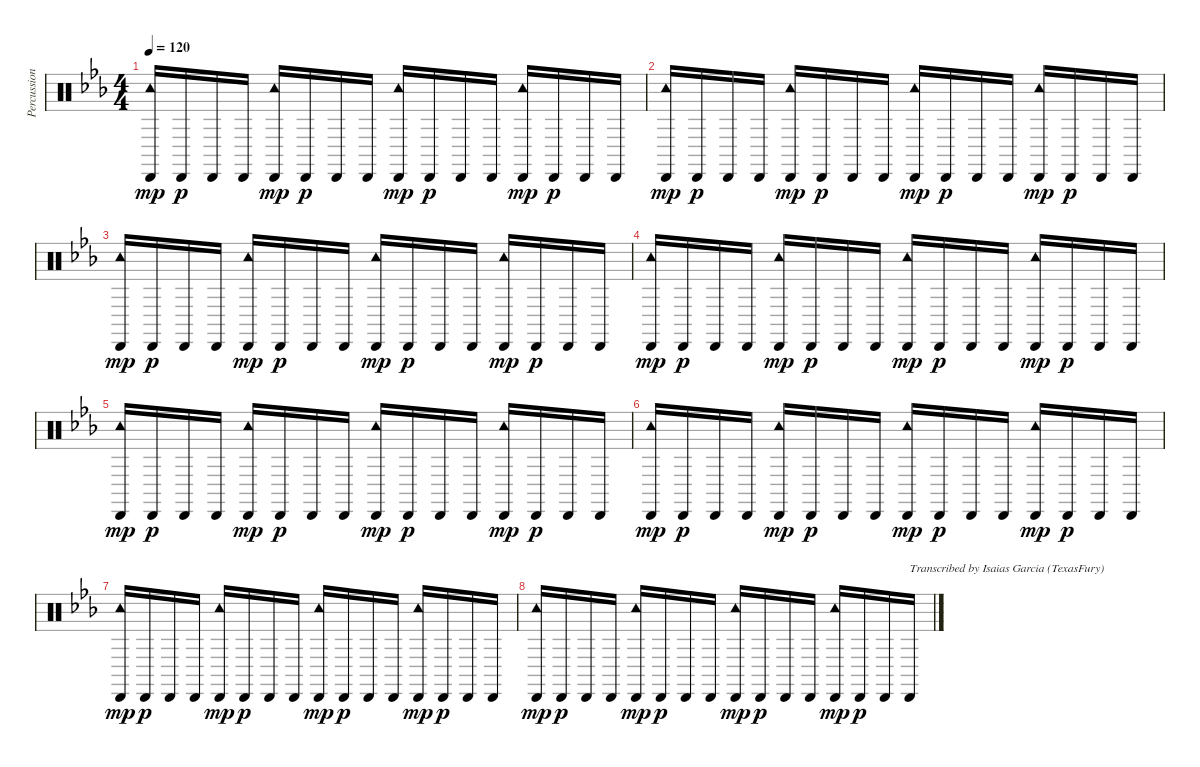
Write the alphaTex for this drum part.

\track ("Percussion" "Percussion") {instrument percussion}
\staff {score}
\articulation defaults
\ts (4 4)
\tempo 120
\clef neutral
\ks cminor
("Cabasa (hit)" "Tambourine (hit)").16{dy mp} "Cabasa (hit)".16{dy p} "Cabasa (hit)".16 "Cabasa (hit)".16 ("Cabasa (hit)" "Tambourine (hit)").16{dy mp} "Cabasa (hit)".16{dy p} "Cabasa (hit)".16 "Cabasa (hit)".16 ("Cabasa (hit)" "Tambourine (hit)").16{dy mp} "Cabasa (hit)".16{dy p} "Cabasa (hit)".16 "Cabasa (hit)".16 ("Cabasa (hit)" "Tambourine (hit)").16{dy mp} "Cabasa (hit)".16{dy p} "Cabasa (hit)".16 "Cabasa (hit)".16 |
("Cabasa (hit)" "Tambourine (hit)").16{dy mp} "Cabasa (hit)".16{dy p} "Cabasa (hit)".16 "Cabasa (hit)".16 ("Cabasa (hit)" "Tambourine (hit)").16{dy mp} "Cabasa (hit)".16{dy p} "Cabasa (hit)".16 "Cabasa (hit)".16 ("Cabasa (hit)" "Tambourine (hit)").16{dy mp} "Cabasa (hit)".16{dy p} "Cabasa (hit)".16 "Cabasa (hit)".16 ("Cabasa (hit)" "Tambourine (hit)").16{dy mp} "Cabasa (hit)".16{dy p} "Cabasa (hit)".16 "Cabasa (hit)".16 |
("Cabasa (hit)" "Tambourine (hit)").16{dy mp} "Cabasa (hit)".16{dy p} "Cabasa (hit)".16 "Cabasa (hit)".16 ("Cabasa (hit)" "Tambourine (hit)").16{dy mp} "Cabasa (hit)".16{dy p} "Cabasa (hit)".16 "Cabasa (hit)".16 ("Cabasa (hit)" "Tambourine (hit)").16{dy mp} "Cabasa (hit)".16{dy p} "Cabasa (hit)".16 "Cabasa (hit)".16 ("Cabasa (hit)" "Tambourine (hit)").16{dy mp} "Cabasa (hit)".16{dy p} "Cabasa (hit)".16 "Cabasa (hit)".16 |
("Cabasa (hit)" "Tambourine (hit)").16{dy mp} "Cabasa (hit)".16{dy p} "Cabasa (hit)".16 "Cabasa (hit)".16 ("Cabasa (hit)" "Tambourine (hit)").16{dy mp} "Cabasa (hit)".16{dy p} "Cabasa (hit)".16 "Cabasa (hit)".16 ("Cabasa (hit)" "Tambourine (hit)").16{dy mp} "Cabasa (hit)".16{dy p} "Cabasa (hit)".16 "Cabasa (hit)".16 ("Cabasa (hit)" "Tambourine (hit)").16{dy mp} "Cabasa (hit)".16{dy p} "Cabasa (hit)".16 "Cabasa (hit)".16 |
("Cabasa (hit)" "Tambourine (hit)").16{dy mp} "Cabasa (hit)".16{dy p} "Cabasa (hit)".16 "Cabasa (hit)".16 ("Cabasa (hit)" "Tambourine (hit)").16{dy mp} "Cabasa (hit)".16{dy p} "Cabasa (hit)".16 "Cabasa (hit)".16 ("Cabasa (hit)" "Tambourine (hit)").16{dy mp} "Cabasa (hit)".16{dy p} "Cabasa (hit)".16 "Cabasa (hit)".16 ("Cabasa (hit)" "Tambourine (hit)").16{dy mp} "Cabasa (hit)".16{dy p} "Cabasa (hit)".16 "Cabasa (hit)".16 |
("Cabasa (hit)" "Tambourine (hit)").16{dy mp} "Cabasa (hit)".16{dy p} "Cabasa (hit)".16 "Cabasa (hit)".16 ("Cabasa (hit)" "Tambourine (hit)").16{dy mp} "Cabasa (hit)".16{dy p} "Cabasa (hit)".16 "Cabasa (hit)".16 ("Cabasa (hit)" "Tambourine (hit)").16{dy mp} "Cabasa (hit)".16{dy p} "Cabasa (hit)".16 "Cabasa (hit)".16 ("Cabasa (hit)" "Tambourine (hit)").16{dy mp} "Cabasa (hit)".16{dy p} "Cabasa (hit)".16 "Cabasa (hit)".16 |
("Cabasa (hit)" "Tambourine (hit)").16{dy mp} "Cabasa (hit)".16{dy p} "Cabasa (hit)".16 "Cabasa (hit)".16 ("Cabasa (hit)" "Tambourine (hit)").16{dy mp} "Cabasa (hit)".16{dy p} "Cabasa (hit)".16 "Cabasa (hit)".16 ("Cabasa (hit)" "Tambourine (hit)").16{dy mp} "Cabasa (hit)".16{dy p} "Cabasa (hit)".16 "Cabasa (hit)".16 ("Cabasa (hit)" "Tambourine (hit)").16{dy mp} "Cabasa (hit)".16{dy p} "Cabasa (hit)".16 "Cabasa (hit)".16 |
("Cabasa (hit)" "Tambourine (hit)").16{dy mp} "Cabasa (hit)".16{dy p} "Cabasa (hit)".16 "Cabasa (hit)".16 ("Cabasa (hit)" "Tambourine (hit)").16{dy mp} "Cabasa (hit)".16{dy p} "Cabasa (hit)".16 "Cabasa (hit)".16 ("Cabasa (hit)" "Tambourine (hit)").16{dy mp} "Cabasa (hit)".16{dy p} "Cabasa (hit)".16 "Cabasa (hit)".16 ("Cabasa (hit)" "Tambourine (hit)").16{dy mp} "Cabasa (hit)".16{dy p} "Cabasa (hit)".16 "Cabasa (hit)".16{txt "Transcribed by Isaias Garcia (TexasFury)"}
